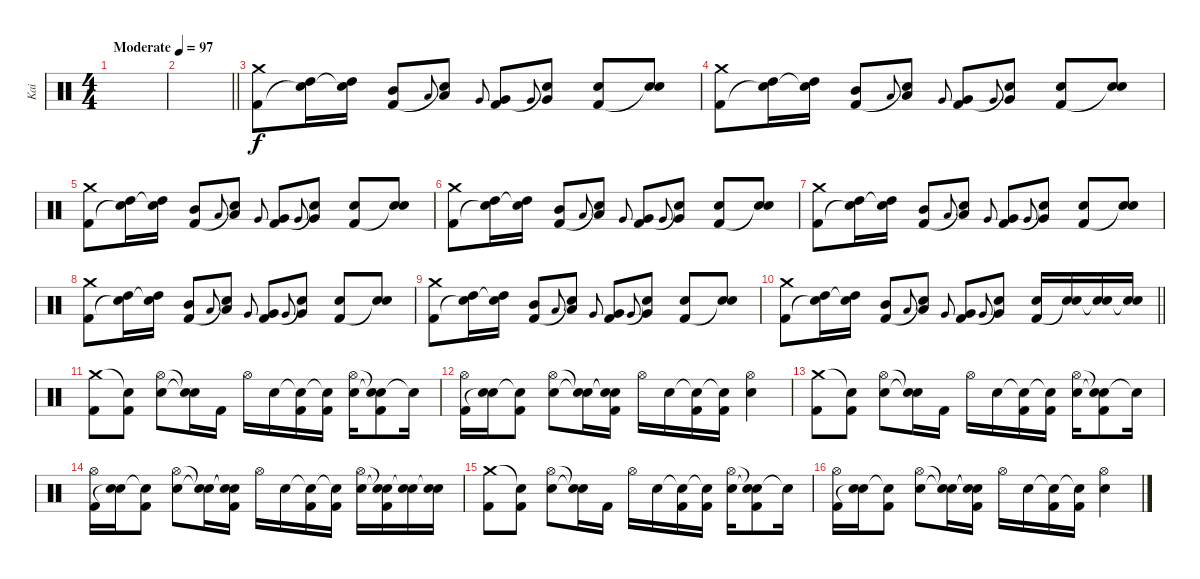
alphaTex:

\track ("Kai" "Kai") {instrument percussion}
\staff {score}
\articulation defaults
\ts (4 4)
\tempo (97 "Moderate")
\clef neutral
\ks c
|
\barLineRight lightlight
|
("Crash medium (hit)" "Kick (hit) 2").8 ("High Tom (hit)" "Snare (hit)"{t}).16 ("High Tom (hit)" "Snare (hit)"{t}).16 ("Mid Tom (hit)" "Kick (hit) 2").8 "Low Tom (hit)".8{gr onbeat} ("Low Tom (hit)" "Snare (hit)"{t}).8 "Very Low Tom (hit)".8{gr onbeat} ("Very Low Tom (hit)" "Kick (hit) 2").8 "Very Low Tom (hit)".8{gr onbeat} ("Very Low Tom (hit)" "Snare (hit)"{t}).8 ("Snare (hit) 2" "Kick (hit) 2").8 ("Snare (hit) 2" "Snare (hit)"{t}).8 |
("Crash medium (hit)" "Kick (hit) 2").8 ("High Tom (hit)" "Snare (hit)"{t}).16 ("High Tom (hit)" "Snare (hit)"{t}).16 ("Mid Tom (hit)" "Kick (hit) 2").8 "Low Tom (hit)".8{gr onbeat} ("Low Tom (hit)" "Snare (hit)"{t}).8 "Very Low Tom (hit)".8{gr onbeat} ("Very Low Tom (hit)" "Kick (hit) 2").8 "Very Low Tom (hit)".8{gr onbeat} ("Very Low Tom (hit)" "Snare (hit)"{t}).8 ("Snare (hit) 2" "Kick (hit) 2").8 ("Snare (hit) 2" "Snare (hit)"{t}).8 |
("Crash medium (hit)" "Kick (hit) 2").8 ("High Tom (hit)" "Snare (hit)"{t}).16 ("High Tom (hit)" "Snare (hit)"{t}).16 ("Mid Tom (hit)" "Kick (hit) 2").8 "Low Tom (hit)".8{gr onbeat} ("Low Tom (hit)" "Snare (hit)"{t}).8 "Very Low Tom (hit)".8{gr onbeat} ("Very Low Tom (hit)" "Kick (hit) 2").8 "Very Low Tom (hit)".8{gr onbeat} ("Very Low Tom (hit)" "Snare (hit)"{t}).8 ("Snare (hit) 2" "Kick (hit) 2").8 ("Snare (hit) 2" "Snare (hit)"{t}).8 |
("Crash medium (hit)" "Kick (hit) 2").8 ("High Tom (hit)" "Snare (hit)"{t}).16 ("High Tom (hit)" "Snare (hit)"{t}).16 ("Mid Tom (hit)" "Kick (hit) 2").8 "Low Tom (hit)".8{gr onbeat} ("Low Tom (hit)" "Snare (hit)"{t}).8 "Very Low Tom (hit)".8{gr onbeat} ("Very Low Tom (hit)" "Kick (hit) 2").8 "Very Low Tom (hit)".8{gr onbeat} ("Very Low Tom (hit)" "Snare (hit)"{t}).8 ("Snare (hit) 2" "Kick (hit) 2").8 ("Snare (hit) 2" "Snare (hit)"{t}).8 |
("Crash medium (hit)" "Kick (hit) 2").8 ("High Tom (hit)" "Snare (hit)"{t}).16 ("High Tom (hit)" "Snare (hit)"{t}).16 ("Mid Tom (hit)" "Kick (hit) 2").8 "Low Tom (hit)".8{gr onbeat} ("Low Tom (hit)" "Snare (hit)"{t}).8 "Very Low Tom (hit)".8{gr onbeat} ("Very Low Tom (hit)" "Kick (hit) 2").8 "Very Low Tom (hit)".8{gr onbeat} ("Very Low Tom (hit)" "Snare (hit)"{t}).8 ("Snare (hit) 2" "Kick (hit) 2").8 ("Snare (hit) 2" "Snare (hit)"{t}).8 |
("Crash medium (hit)" "Kick (hit) 2").8 ("High Tom (hit)" "Snare (hit)"{t}).16 ("High Tom (hit)" "Snare (hit)"{t}).16 ("Mid Tom (hit)" "Kick (hit) 2").8 "Low Tom (hit)".8{gr onbeat} ("Low Tom (hit)" "Snare (hit)"{t}).8 "Very Low Tom (hit)".8{gr onbeat} ("Very Low Tom (hit)" "Kick (hit) 2").8 "Very Low Tom (hit)".8{gr onbeat} ("Very Low Tom (hit)" "Snare (hit)"{t}).8 ("Snare (hit) 2" "Kick (hit) 2").8 ("Snare (hit) 2" "Snare (hit)"{t}).8 |
("Crash medium (hit)" "Kick (hit) 2").8 ("High Tom (hit)" "Snare (hit)"{t}).16 ("High Tom (hit)" "Snare (hit)"{t}).16 ("Mid Tom (hit)" "Kick (hit) 2").8 "Low Tom (hit)".8{gr onbeat} ("Low Tom (hit)" "Snare (hit)"{t}).8 "Very Low Tom (hit)".8{gr onbeat} ("Very Low Tom (hit)" "Kick (hit) 2").8 "Very Low Tom (hit)".8{gr onbeat} ("Very Low Tom (hit)" "Snare (hit)"{t}).8 ("Snare (hit) 2" "Kick (hit) 2").8 ("Snare (hit) 2" "Snare (hit)"{t}).8 |
\barLineRight lightlight
("Crash medium (hit)" "Kick (hit) 2").8 ("High Tom (hit)" "Snare (hit)"{t}).16 ("High Tom (hit)" "Snare (hit)"{t}).16 ("Mid Tom (hit)" "Kick (hit) 2").8 "Low Tom (hit)".8{gr onbeat} ("Low Tom (hit)" "Snare (hit)"{t}).8 "Very Low Tom (hit)".8{gr onbeat} ("Very Low Tom (hit)" "Kick (hit) 2").8 "Very Low Tom (hit)".8{gr onbeat} ("Very Low Tom (hit)" "Snare (hit)"{t}).8 ("Snare (hit) 2" "Kick (hit) 2").16 ("Snare (hit) 2" "Snare (hit)"{t}).16 ("Snare (hit) 2" "Snare (hit)"{t}).16 ("Snare (hit) 2" "Snare (hit)"{t}).16 |
("Crash medium (hit)" "Kick (hit) 2").8 ("Snare (hit)"{t} "Kick (hit) 2").8 ("Hi-Hat (open)" "Snare (hit) 2").8 ("Snare (hit)"{t} "Snare (hit)"{t}).16 "Kick (hit) 2".16 "Hi-Hat (open)".16 "Snare (hit) 2".16 ("Snare (hit)"{t} "Kick (hit) 2").16 ("Snare (hit)"{t} "Kick (hit) 2").16 ("Hi-Hat (open)" "Snare (hit) 2").16 ("Snare (hit)"{t} "Snare (hit)"{t} "Kick (hit) 2").8 "Snare (hit)"{t}.16 |
("Hi-Hat (open)" "Kick (hit) 2").16 ("Snare (hit) 2" "Snare (hit)"{t}).16 ("Snare (hit)"{t} "Kick (hit) 2").8 ("Hi-Hat (open)" "Snare (hit) 2").8 ("Snare (hit)"{t} "Snare (hit)"{t}).16 ("Snare (hit)"{t} "Snare (hit)"{t} "Kick (hit) 2").16 "Hi-Hat (open)".16 "Snare (hit) 2".16 ("Snare (hit)"{t} "Kick (hit) 2").16 ("Snare (hit)"{t} "Kick (hit) 2").16 ("Hi-Hat (open)" "Snare (hit) 2").4 |
("Crash medium (hit)" "Kick (hit) 2").8 ("Snare (hit)"{t} "Kick (hit) 2").8 ("Hi-Hat (open)" "Snare (hit) 2").8 ("Snare (hit)"{t} "Snare (hit)"{t}).16 "Kick (hit) 2".16 "Hi-Hat (open)".16 "Snare (hit) 2".16 ("Snare (hit)"{t} "Kick (hit) 2").16 ("Snare (hit)"{t} "Kick (hit) 2").16 ("Hi-Hat (open)" "Snare (hit) 2").16 ("Snare (hit)"{t} "Snare (hit)"{t} "Kick (hit) 2").8 "Snare (hit)"{t}.16 |
("Hi-Hat (open)" "Kick (hit) 2").16 ("Snare (hit) 2" "Snare (hit)"{t}).16 ("Snare (hit)"{t} "Kick (hit) 2").8 ("Hi-Hat (open)" "Snare (hit) 2").8 ("Snare (hit)"{t} "Snare (hit)"{t}).16 ("Snare (hit)"{t} "Snare (hit)"{t} "Kick (hit) 2").16 "Hi-Hat (open)".16 "Snare (hit) 2".16 ("Snare (hit)"{t} "Kick (hit) 2").16 ("Snare (hit)"{t} "Kick (hit) 2").16 ("Hi-Hat (open)" "Snare (hit) 2").16 ("Snare (hit)"{t} "Snare (hit)"{t} "Kick (hit) 2").16 ("Snare (hit) 2" "Snare (hit)"{t}).16 ("Snare (hit) 2" "Snare (hit)"{t}).16 |
("Crash medium (hit)" "Kick (hit) 2").8 ("Snare (hit)"{t} "Kick (hit) 2").8 ("Hi-Hat (open)" "Snare (hit) 2").8 ("Snare (hit)"{t} "Snare (hit)"{t}).16 "Kick (hit) 2".16 "Hi-Hat (open)".16 "Snare (hit) 2".16 ("Snare (hit)"{t} "Kick (hit) 2").16 ("Snare (hit)"{t} "Kick (hit) 2").16 ("Hi-Hat (open)" "Snare (hit) 2").16 ("Snare (hit)"{t} "Snare (hit)"{t} "Kick (hit) 2").8 "Snare (hit)"{t}.16 |
("Hi-Hat (open)" "Kick (hit) 2").16 ("Snare (hit) 2" "Snare (hit)"{t}).16 ("Snare (hit)"{t} "Kick (hit) 2").8 ("Hi-Hat (open)" "Snare (hit) 2").8 ("Snare (hit)"{t} "Snare (hit)"{t}).16 ("Snare (hit)"{t} "Snare (hit)"{t} "Kick (hit) 2").16 "Hi-Hat (open)".16 "Snare (hit) 2".16 ("Snare (hit)"{t} "Kick (hit) 2").16 ("Snare (hit)"{t} "Kick (hit) 2").16 ("Hi-Hat (open)" "Snare (hit) 2").4
